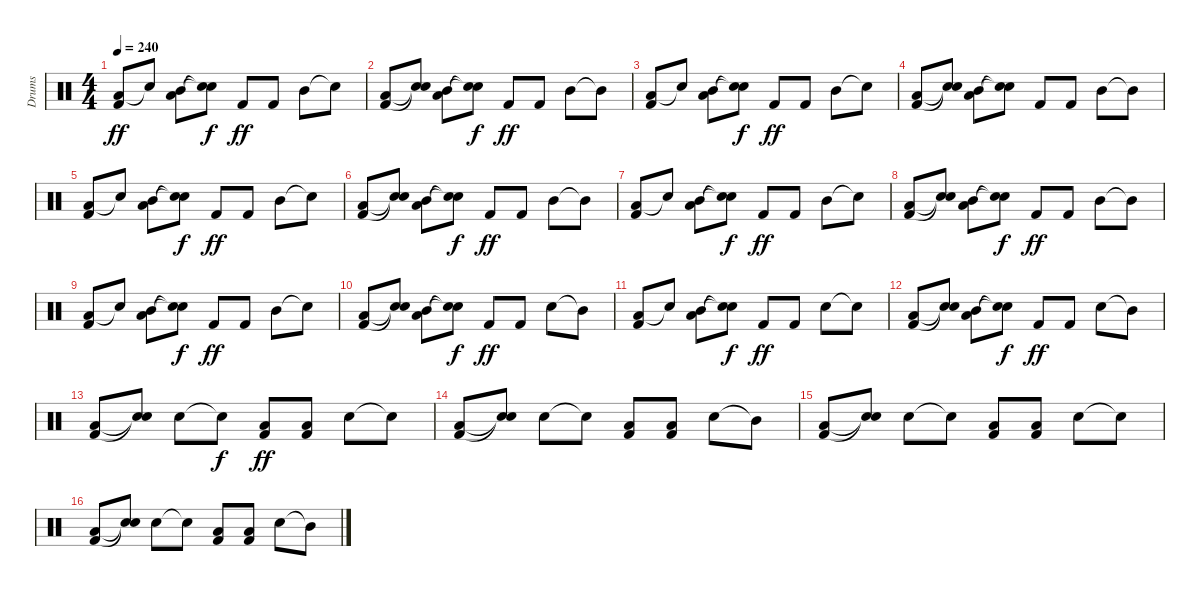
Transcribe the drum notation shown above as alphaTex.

\track ("Drums" "Drums") {instrument percussion}
\staff {score}
\articulation defaults
\ts (4 4)
\tempo 240
\clef neutral
\ks c
("Low Floor Tom (hit)" "Kick (hit) 2").8{dy ff} "Snare (hit)"{t}.8 ("Mid Tom (hit)" "Low Floor Tom (hit)").8 ("Snare (hit)"{t} "Snare (hit)"{t}).8{dy f} "Kick (hit) 2".8{dy ff} "Kick (hit) 2".8 "Mid Tom (hit)".8 "Snare (hit)"{t}.8 |
("Low Floor Tom (hit)" "Kick (hit) 2").8 ("Snare (hit)"{t} "Snare (hit)"{t}).8 ("Low Floor Tom (hit)" "Mid Tom (hit)").8 ("Snare (hit)"{t} "Snare (hit)"{t}).8{dy f} "Kick (hit) 2".8{dy ff} "Kick (hit) 2".8 "Mid Tom (hit)".8 "Mid Tom (hit)"{t}.8 |
("Low Floor Tom (hit)" "Kick (hit) 2").8 "Snare (hit)"{t}.8 ("Mid Tom (hit)" "Low Floor Tom (hit)").8 ("Snare (hit)"{t} "Snare (hit)"{t}).8{dy f} "Kick (hit) 2".8{dy ff} "Kick (hit) 2".8 "Mid Tom (hit)".8 "Snare (hit)"{t}.8 |
("Low Floor Tom (hit)" "Kick (hit) 2").8 ("Snare (hit)"{t} "Snare (hit)"{t}).8 ("Low Floor Tom (hit)" "Mid Tom (hit)").8 ("Snare (hit)"{t} "Snare (hit)"{t}).8 "Kick (hit) 2".8 "Kick (hit) 2".8 "Mid Tom (hit)".8 "Mid Tom (hit)"{t}.8 |
("Low Floor Tom (hit)" "Kick (hit) 2").8 "Snare (hit)"{t}.8 ("Mid Tom (hit)" "Low Floor Tom (hit)").8 ("Snare (hit)"{t} "Snare (hit)"{t}).8{dy f} "Kick (hit) 2".8{dy ff} "Kick (hit) 2".8 "Mid Tom (hit)".8 "Snare (hit)"{t}.8 |
("Low Floor Tom (hit)" "Kick (hit) 2").8 ("Snare (hit)"{t} "Snare (hit)"{t}).8 ("Low Floor Tom (hit)" "Mid Tom (hit)").8 ("Snare (hit)"{t} "Snare (hit)"{t}).8{dy f} "Kick (hit) 2".8{dy ff} "Kick (hit) 2".8 "Mid Tom (hit)".8 "Mid Tom (hit)"{t}.8 |
("Low Floor Tom (hit)" "Kick (hit) 2").8 "Snare (hit)"{t}.8 ("Mid Tom (hit)" "Low Floor Tom (hit)").8 ("Snare (hit)"{t} "Snare (hit)"{t}).8{dy f} "Kick (hit) 2".8{dy ff} "Kick (hit) 2".8 "Mid Tom (hit)".8 "Snare (hit)"{t}.8 |
("Low Floor Tom (hit)" "Kick (hit) 2").8 ("Snare (hit)"{t} "Snare (hit)"{t}).8 ("Low Floor Tom (hit)" "Mid Tom (hit)").8 ("Snare (hit)"{t} "Snare (hit)"{t}).8{dy f} "Kick (hit) 2".8{dy ff} "Kick (hit) 2".8 "Mid Tom (hit)".8 "Mid Tom (hit)"{t}.8 |
("Low Floor Tom (hit)" "Kick (hit) 2").8 "Snare (hit)"{t}.8 ("Mid Tom (hit)" "Low Floor Tom (hit)").8 ("Snare (hit)"{t} "Snare (hit)"{t}).8{dy f} "Kick (hit) 2".8{dy ff} "Kick (hit) 2".8 "Mid Tom (hit)".8 "Snare (hit)"{t}.8 |
("Low Floor Tom (hit)" "Kick (hit) 2").8 ("Snare (hit)"{t} "Snare (hit)"{t}).8 ("Low Floor Tom (hit)" "Mid Tom (hit)").8 ("Snare (hit)"{t} "Snare (hit)"{t}).8{dy f} "Kick (hit) 2".8{dy ff} "Kick (hit) 2".8 "Electric Snare (hit)".8 "Mid Tom (hit)"{t}.8 |
("Low Floor Tom (hit)" "Kick (hit) 2").8 "Snare (hit)"{t}.8 ("Mid Tom (hit)" "Low Floor Tom (hit)").8 ("Snare (hit)"{t} "Snare (hit)"{t}).8{dy f} "Kick (hit) 2".8{dy ff} "Kick (hit) 2".8 "Electric Snare (hit)".8 "Snare (hit)"{t}.8 |
("Low Floor Tom (hit)" "Kick (hit) 2").8 ("Snare (hit)"{t} "Snare (hit)"{t}).8 ("Low Floor Tom (hit)" "Mid Tom (hit)").8 ("Snare (hit)"{t} "Snare (hit)"{t}).8{dy f} "Kick (hit) 2".8{dy ff} "Kick (hit) 2".8 "Electric Snare (hit)".8 "Mid Tom (hit)"{t}.8 |
("Low Floor Tom (hit)" "Kick (hit) 2").8 ("Snare (hit)"{t} "Snare (hit)"{t}).8 "Electric Snare (hit)".8 "Snare (hit)"{t}.8{dy f} ("Low Floor Tom (hit)" "Kick (hit) 2").8{dy ff} ("Low Floor Tom (hit)" "Kick (hit) 2").8 "Electric Snare (hit)".8 "Snare (hit)"{t}.8 |
("Low Floor Tom (hit)" "Kick (hit) 2").8 ("Snare (hit)"{t} "Snare (hit)"{t}).8 "Electric Snare (hit)".8 "Snare (hit)"{t}.8 ("Low Floor Tom (hit)" "Kick (hit) 2").8 ("Low Floor Tom (hit)" "Kick (hit) 2").8 "Electric Snare (hit)".8 "Mid Tom (hit)"{t}.8 |
("Low Floor Tom (hit)" "Kick (hit) 2").8 ("Snare (hit)"{t} "Snare (hit)"{t}).8 "Electric Snare (hit)".8 "Snare (hit)"{t}.8 ("Low Floor Tom (hit)" "Kick (hit) 2").8 ("Low Floor Tom (hit)" "Kick (hit) 2").8 "Electric Snare (hit)".8 "Snare (hit)"{t}.8 |
("Low Floor Tom (hit)" "Kick (hit) 2").8 ("Snare (hit)"{t} "Snare (hit)"{t}).8 "Electric Snare (hit)".8 "Snare (hit)"{t}.8 ("Low Floor Tom (hit)" "Kick (hit) 2").8 ("Low Floor Tom (hit)" "Kick (hit) 2").8 "Electric Snare (hit)".8 "Mid Tom (hit)"{t}.8
